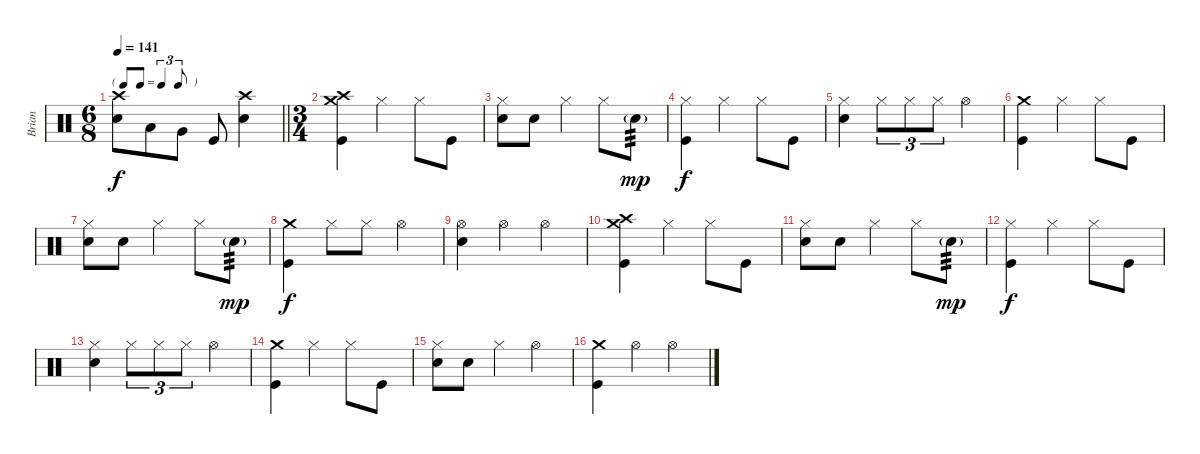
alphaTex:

\track ("Brian" "Brian") {instrument percussion}
\staff {score}
\articulation defaults
\ts (6 8)
\tf triplet8th
\tempo 141
\clef neutral
\barLineRight lightlight
\ks c
("Crash high (hit)" "Electric Snare (hit)").8{dy f} "Low Tom (hit)".8 "Very Low Tom (hit)".8 "Kick (hit)".8 ("Crash high (hit)" "Electric Snare (hit)").4 |
\ts (3 4)
("Crash medium (hit)" "Crash high (hit)" "Kick (hit)").4 "Hi-Hat (closed)".4 "Hi-Hat (closed)".8 "Kick (hit)".8 |
("Hi-Hat (closed)" "Electric Snare (hit)").8 "Electric Snare (hit)".8 "Hi-Hat (closed)".4 "Hi-Hat (closed)".8 "Electric Snare (hit)"{g}.8{tp 3 dy mp volume 7} |
("Hi-Hat (closed)" "Kick (hit)").4{dy f volume 16} "Hi-Hat (closed)".4 "Hi-Hat (closed)".8 "Kick (hit)".8 |
("Hi-Hat (closed)" "Electric Snare (hit)").4 "Hi-Hat (closed)".8{tu (3 2)} "Hi-Hat (closed)".8{tu (3 2)} "Hi-Hat (closed)".8{tu (3 2)} "Hi-Hat (open)".4 |
("Crash medium (hit)" "Kick (hit)").4 "Hi-Hat (closed)".4 "Hi-Hat (closed)".8 "Kick (hit)".8 |
("Hi-Hat (closed)" "Electric Snare (hit)").8 "Electric Snare (hit)".8 "Hi-Hat (closed)".4 "Hi-Hat (closed)".8 "Electric Snare (hit)"{g}.8{tp 3 dy mp volume 7} |
("Crash medium (hit)" "Kick (hit)").4{dy f volume 16} "Hi-Hat (closed)".8 "Hi-Hat (closed)".8 "Hi-Hat (open)".4 |
("Hi-Hat (open)" "Electric Snare (hit)").4 "Hi-Hat (open)".4 "Hi-Hat (open)".4 |
("Crash medium (hit)" "Crash high (hit)" "Kick (hit)").4 "Hi-Hat (closed)".4 "Hi-Hat (closed)".8 "Kick (hit)".8 |
("Hi-Hat (closed)" "Electric Snare (hit)").8 "Electric Snare (hit)".8 "Hi-Hat (closed)".4 "Hi-Hat (closed)".8 "Electric Snare (hit)"{g}.8{tp 3 dy mp volume 7} |
("Hi-Hat (closed)" "Kick (hit)").4{dy f volume 16} "Hi-Hat (closed)".4 "Hi-Hat (closed)".8 "Kick (hit)".8 |
("Hi-Hat (closed)" "Electric Snare (hit)").4 "Hi-Hat (closed)".8{tu (3 2)} "Hi-Hat (closed)".8{tu (3 2)} "Hi-Hat (closed)".8{tu (3 2)} "Hi-Hat (open)".4 |
("Crash medium (hit)" "Kick (hit)").4 "Hi-Hat (closed)".4 "Hi-Hat (closed)".8 "Kick (hit)".8 |
("Hi-Hat (closed)" "Electric Snare (hit)").8 "Electric Snare (hit)".8 "Hi-Hat (closed)".4 "Hi-Hat (open)".4 |
("Crash medium (hit)" "Kick (hit)").4 "Hi-Hat (open)".4 "Hi-Hat (open)".4
